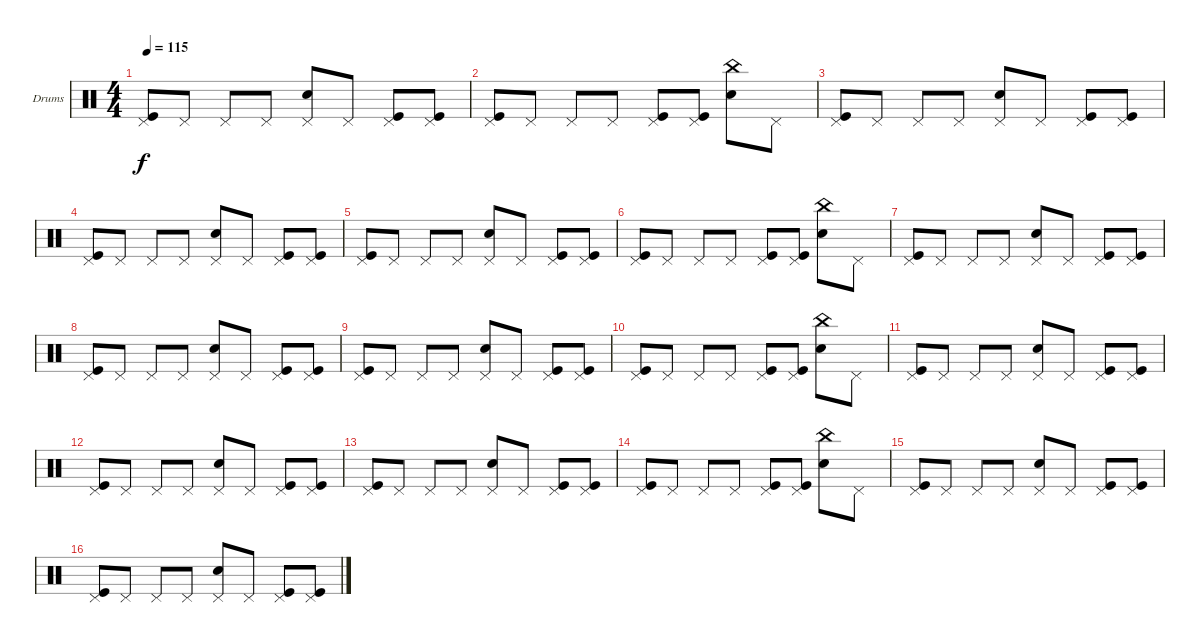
\defaultSystemsLayout 4
\bracketExtendMode groupsimilarinstruments
\firstSystemTrackNameOrientation horizontal
\otherSystemsTrackNameOrientation horizontal
\track ("Drumkit" "Drums") {instrument percussion}
\staff {score}
\articulation defaults
\ts (4 4)
\tempo 115
\clef neutral
\ks c
("Kick (hit)" "Pedal Hi-Hat (hit)").8{dy f} "Pedal Hi-Hat (hit)".8 "Pedal Hi-Hat (hit)".8 "Pedal Hi-Hat (hit)".8 ("Pedal Hi-Hat (hit)" "Snare (hit) 2").8 "Pedal Hi-Hat (hit)".8 ("Pedal Hi-Hat (hit)" "Kick (hit)").8 ("Pedal Hi-Hat (hit)" "Kick (hit)").8 |
("Kick (hit)" "Pedal Hi-Hat (hit)").8 "Pedal Hi-Hat (hit)".8 "Pedal Hi-Hat (hit)".8 "Pedal Hi-Hat (hit)".8 ("Pedal Hi-Hat (hit)" "Kick (hit)").8 ("Pedal Hi-Hat (hit)" "Kick (hit)").8 ("China (hit)" "Snare (hit) 2").8 "Pedal Hi-Hat (hit)".8 |
("Pedal Hi-Hat (hit)" "Kick (hit)").8 "Pedal Hi-Hat (hit)".8 "Pedal Hi-Hat (hit)".8 "Pedal Hi-Hat (hit)".8 ("Pedal Hi-Hat (hit)" "Snare (hit) 2").8 "Pedal Hi-Hat (hit)".8 ("Pedal Hi-Hat (hit)" "Kick (hit)").8 ("Pedal Hi-Hat (hit)" "Kick (hit)").8 |
("Kick (hit)" "Pedal Hi-Hat (hit)").8 "Pedal Hi-Hat (hit)".8 "Pedal Hi-Hat (hit)".8 "Pedal Hi-Hat (hit)".8 ("Pedal Hi-Hat (hit)" "Snare (hit) 2").8 "Pedal Hi-Hat (hit)".8 ("Pedal Hi-Hat (hit)" "Kick (hit)").8 ("Pedal Hi-Hat (hit)" "Kick (hit)").8 |
("Kick (hit)" "Pedal Hi-Hat (hit)").8 "Pedal Hi-Hat (hit)".8 "Pedal Hi-Hat (hit)".8 "Pedal Hi-Hat (hit)".8 ("Pedal Hi-Hat (hit)" "Snare (hit) 2").8 "Pedal Hi-Hat (hit)".8 ("Pedal Hi-Hat (hit)" "Kick (hit)").8 ("Pedal Hi-Hat (hit)" "Kick (hit)").8 |
("Kick (hit)" "Pedal Hi-Hat (hit)").8 "Pedal Hi-Hat (hit)".8 "Pedal Hi-Hat (hit)".8 "Pedal Hi-Hat (hit)".8 ("Pedal Hi-Hat (hit)" "Kick (hit)").8 ("Pedal Hi-Hat (hit)" "Kick (hit)").8 ("China (hit)" "Snare (hit) 2").8 "Pedal Hi-Hat (hit)".8 |
("Pedal Hi-Hat (hit)" "Kick (hit)").8 "Pedal Hi-Hat (hit)".8 "Pedal Hi-Hat (hit)".8 "Pedal Hi-Hat (hit)".8 ("Pedal Hi-Hat (hit)" "Snare (hit) 2").8 "Pedal Hi-Hat (hit)".8 ("Pedal Hi-Hat (hit)" "Kick (hit)").8 ("Pedal Hi-Hat (hit)" "Kick (hit)").8 |
("Kick (hit)" "Pedal Hi-Hat (hit)").8 "Pedal Hi-Hat (hit)".8 "Pedal Hi-Hat (hit)".8 "Pedal Hi-Hat (hit)".8 ("Pedal Hi-Hat (hit)" "Snare (hit) 2").8 "Pedal Hi-Hat (hit)".8 ("Pedal Hi-Hat (hit)" "Kick (hit)").8 ("Pedal Hi-Hat (hit)" "Kick (hit)").8 |
("Kick (hit)" "Pedal Hi-Hat (hit)").8 "Pedal Hi-Hat (hit)".8 "Pedal Hi-Hat (hit)".8 "Pedal Hi-Hat (hit)".8 ("Pedal Hi-Hat (hit)" "Snare (hit) 2").8 "Pedal Hi-Hat (hit)".8 ("Pedal Hi-Hat (hit)" "Kick (hit)").8 ("Pedal Hi-Hat (hit)" "Kick (hit)").8 |
("Kick (hit)" "Pedal Hi-Hat (hit)").8 "Pedal Hi-Hat (hit)".8 "Pedal Hi-Hat (hit)".8 "Pedal Hi-Hat (hit)".8 ("Pedal Hi-Hat (hit)" "Kick (hit)").8 ("Pedal Hi-Hat (hit)" "Kick (hit)").8 ("China (hit)" "Snare (hit) 2").8 "Pedal Hi-Hat (hit)".8 |
("Pedal Hi-Hat (hit)" "Kick (hit)").8 "Pedal Hi-Hat (hit)".8 "Pedal Hi-Hat (hit)".8 "Pedal Hi-Hat (hit)".8 ("Pedal Hi-Hat (hit)" "Snare (hit) 2").8 "Pedal Hi-Hat (hit)".8 ("Pedal Hi-Hat (hit)" "Kick (hit)").8 ("Pedal Hi-Hat (hit)" "Kick (hit)").8 |
("Kick (hit)" "Pedal Hi-Hat (hit)").8 "Pedal Hi-Hat (hit)".8 "Pedal Hi-Hat (hit)".8 "Pedal Hi-Hat (hit)".8 ("Pedal Hi-Hat (hit)" "Snare (hit) 2").8 "Pedal Hi-Hat (hit)".8 ("Pedal Hi-Hat (hit)" "Kick (hit)").8 ("Pedal Hi-Hat (hit)" "Kick (hit)").8 |
("Kick (hit)" "Pedal Hi-Hat (hit)").8 "Pedal Hi-Hat (hit)".8 "Pedal Hi-Hat (hit)".8 "Pedal Hi-Hat (hit)".8 ("Pedal Hi-Hat (hit)" "Snare (hit) 2").8 "Pedal Hi-Hat (hit)".8 ("Pedal Hi-Hat (hit)" "Kick (hit)").8 ("Pedal Hi-Hat (hit)" "Kick (hit)").8 |
("Kick (hit)" "Pedal Hi-Hat (hit)").8 "Pedal Hi-Hat (hit)".8 "Pedal Hi-Hat (hit)".8 "Pedal Hi-Hat (hit)".8 ("Pedal Hi-Hat (hit)" "Kick (hit)").8 ("Pedal Hi-Hat (hit)" "Kick (hit)").8 ("China (hit)" "Snare (hit) 2").8 "Pedal Hi-Hat (hit)".8 |
("Pedal Hi-Hat (hit)" "Kick (hit)").8 "Pedal Hi-Hat (hit)".8 "Pedal Hi-Hat (hit)".8 "Pedal Hi-Hat (hit)".8 ("Pedal Hi-Hat (hit)" "Snare (hit) 2").8 "Pedal Hi-Hat (hit)".8 ("Pedal Hi-Hat (hit)" "Kick (hit)").8 ("Pedal Hi-Hat (hit)" "Kick (hit)").8 |
("Kick (hit)" "Pedal Hi-Hat (hit)").8 "Pedal Hi-Hat (hit)".8 "Pedal Hi-Hat (hit)".8 "Pedal Hi-Hat (hit)".8 ("Pedal Hi-Hat (hit)" "Snare (hit) 2").8 "Pedal Hi-Hat (hit)".8 ("Pedal Hi-Hat (hit)" "Kick (hit)").8 ("Pedal Hi-Hat (hit)" "Kick (hit)").8
